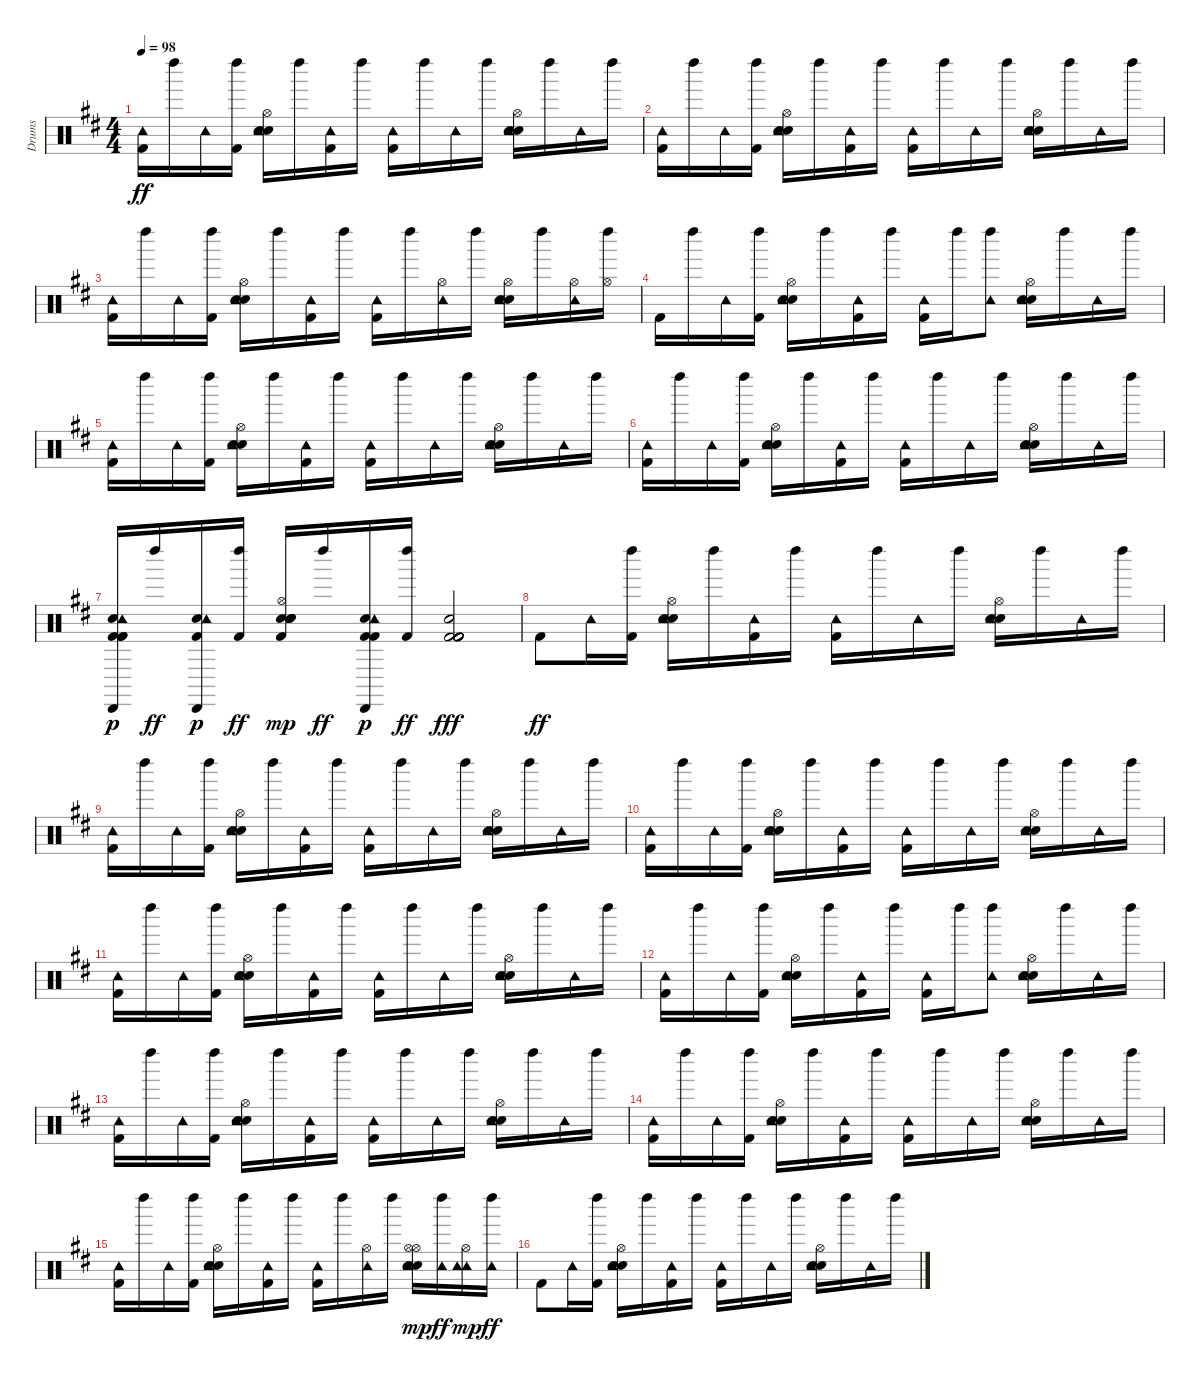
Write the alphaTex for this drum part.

\track ("Drums" "Drums") {instrument percussion}
\staff {score}
\articulation defaults
\ts (4 4)
\tempo 98
\clef neutral
\ks d
("Kick (hit) 2" "Tambourine (hit)").16{dy ff} "Left Maraca (hit)".16 "Tambourine (hit)".16 ("Kick (hit) 2" "Left Maraca (hit)").16 ("Snare (hit) 2" "Electric Snare (hit)" "Hi-Hat (open)" "Tambourine (hit)").16 "Left Maraca (hit)".16 ("Kick (hit) 2" "Tambourine (hit)").16 "Left Maraca (hit)".16 ("Kick (hit) 2" "Tambourine (hit)").16 "Left Maraca (hit)".16 "Tambourine (hit)".16 "Left Maraca (hit)".16 ("Snare (hit) 2" "Electric Snare (hit)" "Hi-Hat (open)" "Tambourine (hit)").16 "Left Maraca (hit)".16 "Tambourine (hit)".16 "Left Maraca (hit)".16 |
("Kick (hit) 2" "Tambourine (hit)").16 "Left Maraca (hit)".16 "Tambourine (hit)".16 ("Kick (hit) 2" "Left Maraca (hit)").16 ("Snare (hit) 2" "Electric Snare (hit)" "Hi-Hat (open)" "Tambourine (hit)").16 "Left Maraca (hit)".16 ("Kick (hit) 2" "Tambourine (hit)").16 "Left Maraca (hit)".16 ("Kick (hit) 2" "Tambourine (hit)").16 "Left Maraca (hit)".16 "Tambourine (hit)".16 "Left Maraca (hit)".16 ("Snare (hit) 2" "Electric Snare (hit)" "Hi-Hat (open)" "Tambourine (hit)").16 "Left Maraca (hit)".16 "Tambourine (hit)".16 "Left Maraca (hit)".16 |
("Kick (hit) 2" "Tambourine (hit)").16 "Left Maraca (hit)".16 "Tambourine (hit)".16 ("Kick (hit) 2" "Left Maraca (hit)").16 ("Snare (hit) 2" "Electric Snare (hit)" "Hi-Hat (open)" "Tambourine (hit)").16 "Left Maraca (hit)".16 ("Kick (hit) 2" "Tambourine (hit)").16 "Left Maraca (hit)".16 ("Kick (hit) 2" "Tambourine (hit)").16 "Left Maraca (hit)".16 ("Hi-Hat (open)" "Tambourine (hit)").16 "Left Maraca (hit)".16 ("Snare (hit) 2" "Electric Snare (hit)" "Hi-Hat (open)" "Tambourine (hit)").16 "Left Maraca (hit)".16 ("Hi-Hat (open)" "Tambourine (hit)").16 ("Hi-Hat (open)" "Left Maraca (hit)").16 |
"Kick (hit) 2".16 "Left Maraca (hit)".16 "Tambourine (hit)".16 ("Kick (hit) 2" "Left Maraca (hit)").16 ("Snare (hit) 2" "Electric Snare (hit)" "Hi-Hat (open)" "Tambourine (hit)").16 "Left Maraca (hit)".16 ("Kick (hit) 2" "Tambourine (hit)").16 "Left Maraca (hit)".16 ("Kick (hit) 2" "Tambourine (hit)").16 "Left Maraca (hit)".16 ("Tambourine (hit)" "Left Maraca (hit)").8 ("Snare (hit) 2" "Electric Snare (hit)" "Hi-Hat (open)" "Tambourine (hit)").16 "Left Maraca (hit)".16 "Tambourine (hit)".16 "Left Maraca (hit)".16 |
("Kick (hit) 2" "Tambourine (hit)").16 "Left Maraca (hit)".16 "Tambourine (hit)".16 ("Kick (hit) 2" "Left Maraca (hit)").16 ("Snare (hit) 2" "Electric Snare (hit)" "Hi-Hat (open)" "Tambourine (hit)").16 "Left Maraca (hit)".16 ("Kick (hit) 2" "Tambourine (hit)").16 "Left Maraca (hit)".16 ("Kick (hit) 2" "Tambourine (hit)").16 "Left Maraca (hit)".16 "Tambourine (hit)".16 "Left Maraca (hit)".16 ("Snare (hit) 2" "Electric Snare (hit)" "Hi-Hat (open)" "Tambourine (hit)").16 "Left Maraca (hit)".16 "Tambourine (hit)".16 "Left Maraca (hit)".16 |
("Kick (hit) 2" "Tambourine (hit)").16 "Left Maraca (hit)".16 "Tambourine (hit)".16 ("Kick (hit) 2" "Left Maraca (hit)").16 ("Snare (hit) 2" "Electric Snare (hit)" "Hi-Hat (open)" "Tambourine (hit)").16 "Left Maraca (hit)".16 ("Kick (hit) 2" "Tambourine (hit)").16 "Left Maraca (hit)".16 ("Kick (hit) 2" "Tambourine (hit)").16 "Left Maraca (hit)".16 "Tambourine (hit)".16 "Left Maraca (hit)".16 ("Snare (hit) 2" "Electric Snare (hit)" "Hi-Hat (open)" "Tambourine (hit)").16 "Left Maraca (hit)".16 "Tambourine (hit)".16 "Left Maraca (hit)".16 |
("Kick (hit) 2" "Kick (hit) 2" "Kick (hit) 2" "Snare (hit) 2" "Tambourine (hit)" "Cabasa (hit)").16{dy p} "Left Maraca (hit)".16{dy ff} ("Kick (hit) 2" "Snare (hit) 2" "Tambourine (hit)" "Cabasa (hit)").16{dy p} ("Kick (hit) 2" "Left Maraca (hit)").16{dy ff} ("Kick (hit) 2" "Snare (hit) 2" "Snare (hit) 2" "Electric Snare (hit)" "Electric Snare (hit)" "Hi-Hat (open)").16{dy mp} "Left Maraca (hit)".16{dy ff} ("Kick (hit) 2" "Kick (hit) 2" "Snare (hit) 2" "Tambourine (hit)" "Cabasa (hit)").16{dy p} ("Kick (hit) 2" "Left Maraca (hit)").16{dy ff} ("Kick (hit) 2" "Kick (hit) 2" "Kick (hit) 2" "Kick (hit) 2" "Kick (hit) 2" "Snare (hit) 2").2{dy fff} |
"Kick (hit) 2".8{dy ff} "Tambourine (hit)".16 ("Kick (hit) 2" "Left Maraca (hit)").16 ("Snare (hit) 2" "Electric Snare (hit)" "Hi-Hat (open)" "Tambourine (hit)").16 "Left Maraca (hit)".16 ("Kick (hit) 2" "Tambourine (hit)").16 "Left Maraca (hit)".16 ("Kick (hit) 2" "Tambourine (hit)").16 "Left Maraca (hit)".16 "Tambourine (hit)".16 "Left Maraca (hit)".16 ("Snare (hit) 2" "Electric Snare (hit)" "Hi-Hat (open)" "Tambourine (hit)").16 "Left Maraca (hit)".16 "Tambourine (hit)".16 "Left Maraca (hit)".16 |
("Kick (hit) 2" "Tambourine (hit)").16 "Left Maraca (hit)".16 "Tambourine (hit)".16 ("Kick (hit) 2" "Left Maraca (hit)").16 ("Snare (hit) 2" "Electric Snare (hit)" "Hi-Hat (open)" "Tambourine (hit)").16 "Left Maraca (hit)".16 ("Kick (hit) 2" "Tambourine (hit)").16 "Left Maraca (hit)".16 ("Kick (hit) 2" "Tambourine (hit)").16 "Left Maraca (hit)".16 "Tambourine (hit)".16 "Left Maraca (hit)".16 ("Snare (hit) 2" "Electric Snare (hit)" "Hi-Hat (open)" "Tambourine (hit)").16 "Left Maraca (hit)".16 "Tambourine (hit)".16 "Left Maraca (hit)".16 |
("Kick (hit) 2" "Tambourine (hit)").16 "Left Maraca (hit)".16 "Tambourine (hit)".16 ("Kick (hit) 2" "Left Maraca (hit)").16 ("Snare (hit) 2" "Electric Snare (hit)" "Hi-Hat (open)" "Tambourine (hit)").16 "Left Maraca (hit)".16 ("Kick (hit) 2" "Tambourine (hit)").16 "Left Maraca (hit)".16 ("Kick (hit) 2" "Tambourine (hit)").16 "Left Maraca (hit)".16 "Tambourine (hit)".16 "Left Maraca (hit)".16 ("Snare (hit) 2" "Electric Snare (hit)" "Hi-Hat (open)" "Tambourine (hit)").16 "Left Maraca (hit)".16 "Tambourine (hit)".16 "Left Maraca (hit)".16 |
("Kick (hit) 2" "Tambourine (hit)").16 "Left Maraca (hit)".16 "Tambourine (hit)".16 ("Kick (hit) 2" "Left Maraca (hit)").16 ("Snare (hit) 2" "Electric Snare (hit)" "Hi-Hat (open)" "Tambourine (hit)").16 "Left Maraca (hit)".16 ("Kick (hit) 2" "Tambourine (hit)").16 "Left Maraca (hit)".16 ("Kick (hit) 2" "Tambourine (hit)").16 "Left Maraca (hit)".16 "Tambourine (hit)".16 "Left Maraca (hit)".16 ("Snare (hit) 2" "Electric Snare (hit)" "Hi-Hat (open)" "Tambourine (hit)").16 "Left Maraca (hit)".16 "Tambourine (hit)".16 "Left Maraca (hit)".16 |
("Kick (hit) 2" "Tambourine (hit)").16 "Left Maraca (hit)".16 "Tambourine (hit)".16 ("Kick (hit) 2" "Left Maraca (hit)").16 ("Snare (hit) 2" "Electric Snare (hit)" "Hi-Hat (open)" "Tambourine (hit)").16 "Left Maraca (hit)".16 ("Kick (hit) 2" "Tambourine (hit)").16 "Left Maraca (hit)".16 ("Kick (hit) 2" "Tambourine (hit)").16 "Left Maraca (hit)".16 ("Tambourine (hit)" "Left Maraca (hit)").8 ("Snare (hit) 2" "Electric Snare (hit)" "Hi-Hat (open)" "Tambourine (hit)").16 "Left Maraca (hit)".16 "Tambourine (hit)".16 "Left Maraca (hit)".16 |
("Kick (hit) 2" "Tambourine (hit)").16 "Left Maraca (hit)".16 "Tambourine (hit)".16 ("Kick (hit) 2" "Left Maraca (hit)").16 ("Snare (hit) 2" "Electric Snare (hit)" "Hi-Hat (open)" "Tambourine (hit)").16 "Left Maraca (hit)".16 ("Kick (hit) 2" "Tambourine (hit)").16 "Left Maraca (hit)".16 ("Kick (hit) 2" "Tambourine (hit)").16 "Left Maraca (hit)".16 "Tambourine (hit)".16 "Left Maraca (hit)".16 ("Snare (hit) 2" "Electric Snare (hit)" "Hi-Hat (open)" "Tambourine (hit)").16 "Left Maraca (hit)".16 "Tambourine (hit)".16 "Left Maraca (hit)".16 |
("Kick (hit) 2" "Tambourine (hit)").16 "Left Maraca (hit)".16 "Tambourine (hit)".16 ("Kick (hit) 2" "Left Maraca (hit)").16 ("Snare (hit) 2" "Electric Snare (hit)" "Hi-Hat (open)" "Tambourine (hit)").16 "Left Maraca (hit)".16 ("Kick (hit) 2" "Tambourine (hit)").16 "Left Maraca (hit)".16 ("Kick (hit) 2" "Tambourine (hit)").16 "Left Maraca (hit)".16 "Tambourine (hit)".16 "Left Maraca (hit)".16 ("Snare (hit) 2" "Electric Snare (hit)" "Hi-Hat (open)" "Tambourine (hit)").16 "Left Maraca (hit)".16 "Tambourine (hit)".16 "Left Maraca (hit)".16 |
("Kick (hit) 2" "Tambourine (hit)").16 "Left Maraca (hit)".16 "Tambourine (hit)".16 ("Kick (hit) 2" "Left Maraca (hit)").16 ("Snare (hit) 2" "Electric Snare (hit)" "Hi-Hat (open)" "Tambourine (hit)").16 "Left Maraca (hit)".16 ("Kick (hit) 2" "Tambourine (hit)").16 "Left Maraca (hit)".16 ("Kick (hit) 2" "Tambourine (hit)").16 "Left Maraca (hit)".16 ("Hi-Hat (open)" "Tambourine (hit)").16 "Left Maraca (hit)".16 ("Snare (hit) 2" "Electric Snare (hit)" "Hi-Hat (open)" "Hi-Hat (open)" "Tambourine (hit)" "Tambourine (hit)").16{dy mp} ("Tambourine (hit)" "Left Maraca (hit)").16{dy ff} ("Hi-Hat (open)" "Tambourine (hit)" "Tambourine (hit)").16{dy mp} ("Tambourine (hit)" "Left Maraca (hit)").16{dy ff} |
"Kick (hit) 2".8 "Tambourine (hit)".16 ("Kick (hit) 2" "Left Maraca (hit)").16 ("Snare (hit) 2" "Electric Snare (hit)" "Hi-Hat (open)" "Tambourine (hit)").16 "Left Maraca (hit)".16 ("Kick (hit) 2" "Tambourine (hit)").16 "Left Maraca (hit)".16 ("Kick (hit) 2" "Tambourine (hit)").16 "Left Maraca (hit)".16 "Tambourine (hit)".16 "Left Maraca (hit)".16 ("Snare (hit) 2" "Electric Snare (hit)" "Hi-Hat (open)" "Tambourine (hit)").16 "Left Maraca (hit)".16 "Tambourine (hit)".16 "Left Maraca (hit)".16
